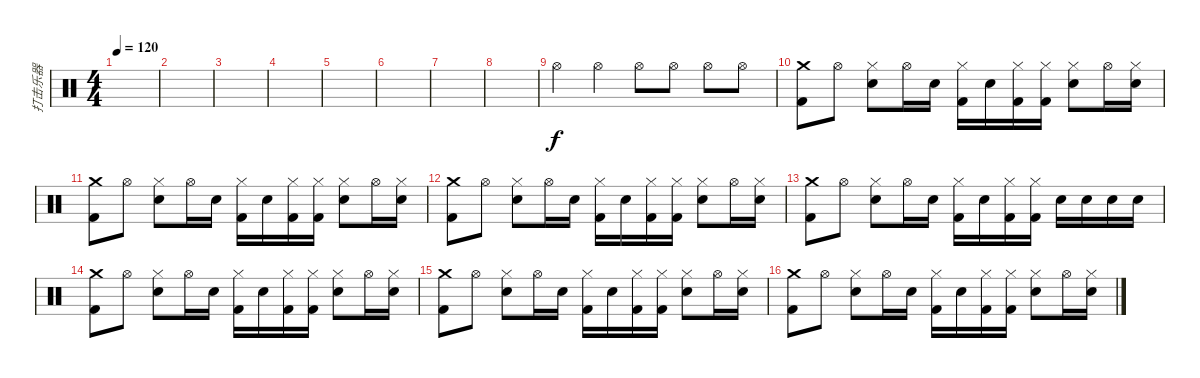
\track ("打击乐器" "打击乐器") {instrument percussion}
\staff {score}
\articulation defaults
\ts (4 4)
\tempo 120
\clef neutral
\ks c
|
|
|
|
|
|
|
|
"Hi-Hat (open)".4 "Hi-Hat (open)".4 "Hi-Hat (open)".8 "Hi-Hat (open)".8 "Hi-Hat (open)".8 "Hi-Hat (open)".8 |
("Crash medium (hit)" "Kick (hit) 2").8 "Hi-Hat (open)".8 ("Hi-Hat (closed)" "Snare (hit) 2").8 "Hi-Hat (open)".16 "Snare (hit) 2".16 ("Hi-Hat (closed)" "Kick (hit) 2").16 "Snare (hit) 2".16 ("Hi-Hat (closed)" "Kick (hit) 2").16 ("Hi-Hat (closed)" "Kick (hit) 2").16 ("Hi-Hat (closed)" "Snare (hit) 2").8 "Hi-Hat (open)".16 ("Hi-Hat (closed)" "Snare (hit) 2").16 |
("Crash medium (hit)" "Kick (hit) 2").8 "Hi-Hat (open)".8 ("Hi-Hat (closed)" "Snare (hit) 2").8 "Hi-Hat (open)".16 "Snare (hit) 2".16 ("Hi-Hat (closed)" "Kick (hit) 2").16 "Snare (hit) 2".16 ("Hi-Hat (closed)" "Kick (hit) 2").16 ("Hi-Hat (closed)" "Kick (hit) 2").16 ("Hi-Hat (closed)" "Snare (hit) 2").8 "Hi-Hat (open)".16 ("Hi-Hat (closed)" "Snare (hit) 2").16 |
("Crash medium (hit)" "Kick (hit) 2").8 "Hi-Hat (open)".8 ("Hi-Hat (closed)" "Snare (hit) 2").8 "Hi-Hat (open)".16 "Snare (hit) 2".16 ("Hi-Hat (closed)" "Kick (hit) 2").16 "Snare (hit) 2".16 ("Hi-Hat (closed)" "Kick (hit) 2").16 ("Hi-Hat (closed)" "Kick (hit) 2").16 ("Hi-Hat (closed)" "Snare (hit) 2").8 "Hi-Hat (open)".16 ("Hi-Hat (closed)" "Snare (hit) 2").16 |
("Crash medium (hit)" "Kick (hit) 2").8 "Hi-Hat (open)".8 ("Hi-Hat (closed)" "Snare (hit) 2").8 "Hi-Hat (open)".16 "Snare (hit) 2".16 ("Hi-Hat (closed)" "Kick (hit) 2").16 "Snare (hit) 2".16 ("Hi-Hat (closed)" "Kick (hit) 2").16 ("Hi-Hat (closed)" "Kick (hit) 2").16 "Snare (hit) 2".16 "Snare (hit) 2".16 "Snare (hit) 2".16 "Snare (hit) 2".16 |
("Crash medium (hit)" "Kick (hit) 2").8 "Hi-Hat (open)".8 ("Hi-Hat (closed)" "Snare (hit) 2").8 "Hi-Hat (open)".16 "Snare (hit) 2".16 ("Hi-Hat (closed)" "Kick (hit) 2").16 "Snare (hit) 2".16 ("Hi-Hat (closed)" "Kick (hit) 2").16 ("Hi-Hat (closed)" "Kick (hit) 2").16 ("Hi-Hat (closed)" "Snare (hit) 2").8 "Hi-Hat (open)".16 ("Hi-Hat (closed)" "Snare (hit) 2").16 |
("Crash medium (hit)" "Kick (hit) 2").8 "Hi-Hat (open)".8 ("Hi-Hat (closed)" "Snare (hit) 2").8 "Hi-Hat (open)".16 "Snare (hit) 2".16 ("Hi-Hat (closed)" "Kick (hit) 2").16 "Snare (hit) 2".16 ("Hi-Hat (closed)" "Kick (hit) 2").16 ("Hi-Hat (closed)" "Kick (hit) 2").16 ("Hi-Hat (closed)" "Snare (hit) 2").8 "Hi-Hat (open)".16 ("Hi-Hat (closed)" "Snare (hit) 2").16 |
("Crash medium (hit)" "Kick (hit) 2").8 "Hi-Hat (open)".8 ("Hi-Hat (closed)" "Snare (hit) 2").8 "Hi-Hat (open)".16 "Snare (hit) 2".16 ("Hi-Hat (closed)" "Kick (hit) 2").16 "Snare (hit) 2".16 ("Hi-Hat (closed)" "Kick (hit) 2").16 ("Hi-Hat (closed)" "Kick (hit) 2").16 ("Hi-Hat (closed)" "Snare (hit) 2").8 "Hi-Hat (open)".16 ("Hi-Hat (closed)" "Snare (hit) 2").16
